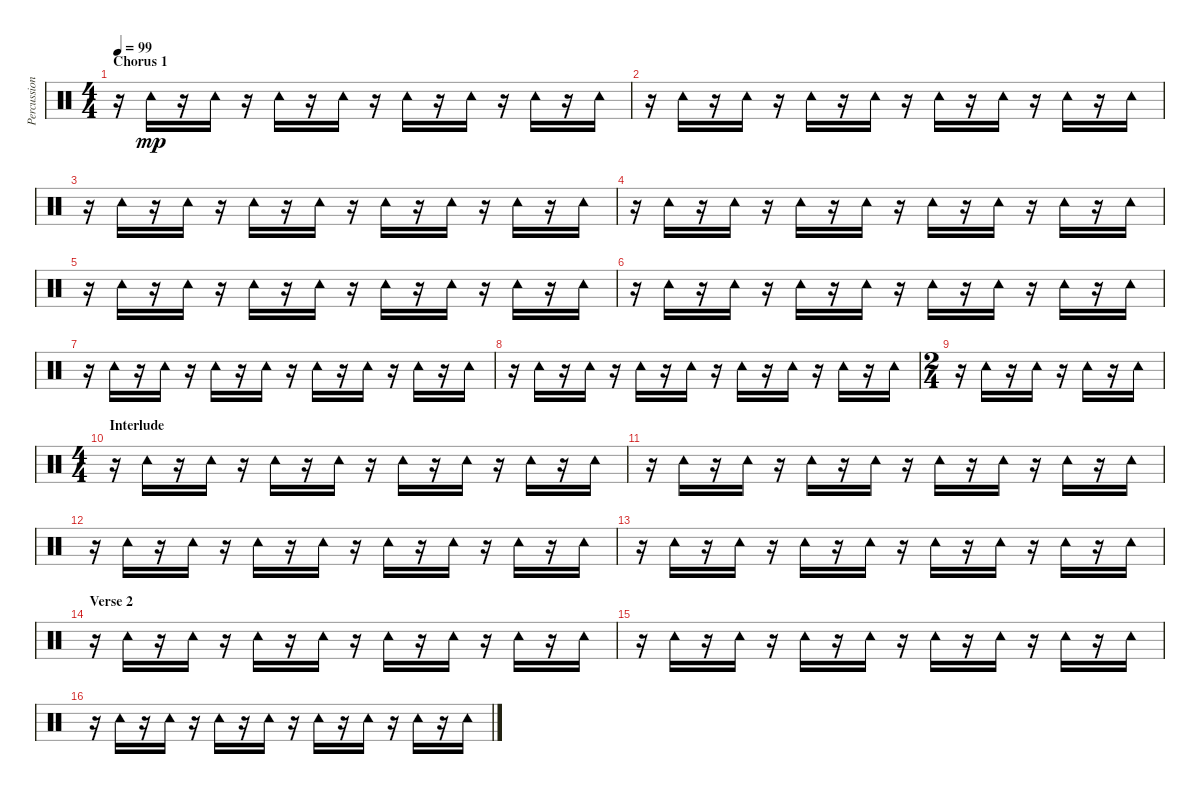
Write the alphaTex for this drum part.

\track ("Percussion" "Percussion") {instrument percussion}
\staff {score}
\articulation defaults
\ts (4 4)
\section ("" "Chorus 1")
\tempo 99
\clef neutral
\ks c
r.16{dy mp} "Tambourine (hit)".16 r.16 "Tambourine (hit)".16 r.16 "Tambourine (hit)".16 r.16 "Tambourine (hit)".16 r.16 "Tambourine (hit)".16 r.16 "Tambourine (hit)".16 r.16 "Tambourine (hit)".16 r.16 "Tambourine (hit)".16 |
r.16 "Tambourine (hit)".16 r.16 "Tambourine (hit)".16 r.16 "Tambourine (hit)".16 r.16 "Tambourine (hit)".16 r.16 "Tambourine (hit)".16 r.16 "Tambourine (hit)".16 r.16 "Tambourine (hit)".16 r.16 "Tambourine (hit)".16 |
r.16 "Tambourine (hit)".16 r.16 "Tambourine (hit)".16 r.16 "Tambourine (hit)".16 r.16 "Tambourine (hit)".16 r.16 "Tambourine (hit)".16 r.16 "Tambourine (hit)".16 r.16 "Tambourine (hit)".16 r.16 "Tambourine (hit)".16 |
r.16 "Tambourine (hit)".16 r.16 "Tambourine (hit)".16 r.16 "Tambourine (hit)".16 r.16 "Tambourine (hit)".16 r.16 "Tambourine (hit)".16 r.16 "Tambourine (hit)".16 r.16 "Tambourine (hit)".16 r.16 "Tambourine (hit)".16 |
r.16 "Tambourine (hit)".16 r.16 "Tambourine (hit)".16 r.16 "Tambourine (hit)".16 r.16 "Tambourine (hit)".16 r.16 "Tambourine (hit)".16 r.16 "Tambourine (hit)".16 r.16 "Tambourine (hit)".16 r.16 "Tambourine (hit)".16 |
r.16 "Tambourine (hit)".16 r.16 "Tambourine (hit)".16 r.16 "Tambourine (hit)".16 r.16 "Tambourine (hit)".16 r.16 "Tambourine (hit)".16 r.16 "Tambourine (hit)".16 r.16 "Tambourine (hit)".16 r.16 "Tambourine (hit)".16 |
r.16 "Tambourine (hit)".16 r.16 "Tambourine (hit)".16 r.16 "Tambourine (hit)".16 r.16 "Tambourine (hit)".16 r.16 "Tambourine (hit)".16 r.16 "Tambourine (hit)".16 r.16 "Tambourine (hit)".16 r.16 "Tambourine (hit)".16 |
r.16 "Tambourine (hit)".16 r.16 "Tambourine (hit)".16 r.16 "Tambourine (hit)".16 r.16 "Tambourine (hit)".16 r.16 "Tambourine (hit)".16 r.16 "Tambourine (hit)".16 r.16 "Tambourine (hit)".16 r.16 "Tambourine (hit)".16 |
\ts (2 4)
r.16 "Tambourine (hit)".16 r.16 "Tambourine (hit)".16 r.16 "Tambourine (hit)".16 r.16 "Tambourine (hit)".16 |
\ts (4 4)
\section ("" "Interlude")
r.16 "Tambourine (hit)".16 r.16 "Tambourine (hit)".16 r.16 "Tambourine (hit)".16 r.16 "Tambourine (hit)".16 r.16 "Tambourine (hit)".16 r.16 "Tambourine (hit)".16 r.16 "Tambourine (hit)".16 r.16 "Tambourine (hit)".16 |
r.16 "Tambourine (hit)".16 r.16 "Tambourine (hit)".16 r.16 "Tambourine (hit)".16 r.16 "Tambourine (hit)".16 r.16 "Tambourine (hit)".16 r.16 "Tambourine (hit)".16 r.16 "Tambourine (hit)".16 r.16 "Tambourine (hit)".16 |
r.16 "Tambourine (hit)".16 r.16 "Tambourine (hit)".16 r.16 "Tambourine (hit)".16 r.16 "Tambourine (hit)".16 r.16 "Tambourine (hit)".16 r.16 "Tambourine (hit)".16 r.16 "Tambourine (hit)".16 r.16 "Tambourine (hit)".16 |
r.16 "Tambourine (hit)".16 r.16 "Tambourine (hit)".16 r.16 "Tambourine (hit)".16 r.16 "Tambourine (hit)".16 r.16 "Tambourine (hit)".16 r.16 "Tambourine (hit)".16 r.16 "Tambourine (hit)".16 r.16 "Tambourine (hit)".16 |
\section ("" "Verse 2")
r.16 "Tambourine (hit)".16 r.16 "Tambourine (hit)".16 r.16 "Tambourine (hit)".16 r.16 "Tambourine (hit)".16 r.16 "Tambourine (hit)".16 r.16 "Tambourine (hit)".16 r.16 "Tambourine (hit)".16 r.16 "Tambourine (hit)".16 |
r.16 "Tambourine (hit)".16 r.16 "Tambourine (hit)".16 r.16 "Tambourine (hit)".16 r.16 "Tambourine (hit)".16 r.16 "Tambourine (hit)".16 r.16 "Tambourine (hit)".16 r.16 "Tambourine (hit)".16 r.16 "Tambourine (hit)".16 |
r.16 "Tambourine (hit)".16 r.16 "Tambourine (hit)".16 r.16 "Tambourine (hit)".16 r.16 "Tambourine (hit)".16 r.16 "Tambourine (hit)".16 r.16 "Tambourine (hit)".16 r.16 "Tambourine (hit)".16 r.16 "Tambourine (hit)".16
